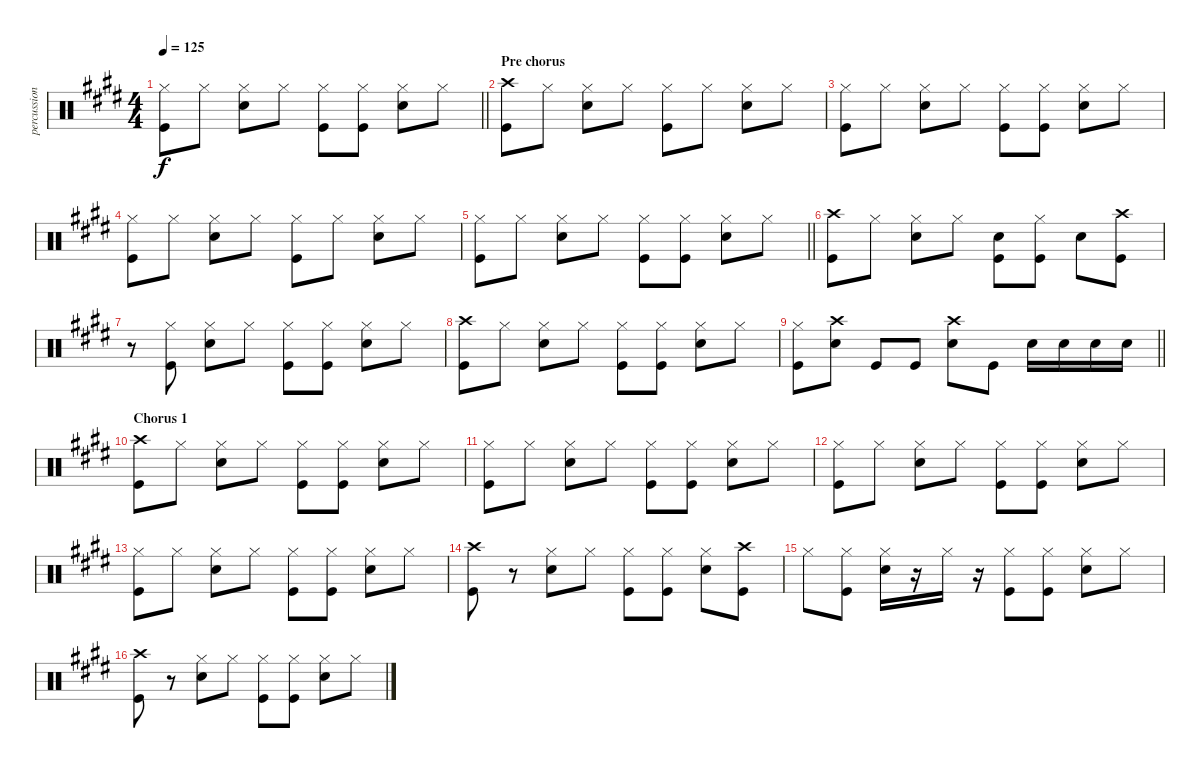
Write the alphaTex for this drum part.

\track ("percussion" "percussion") {instrument percussion}
\staff {score}
\articulation defaults
\ts (4 4)
\tempo 125
\clef neutral
\barLineRight lightlight
\ks e
("Hi-Hat (closed)" "Kick (hit)").8{dy f} "Hi-Hat (closed)".8 ("Electric Snare (hit)" "Hi-Hat (closed)").8 "Hi-Hat (closed)".8 ("Hi-Hat (closed)" "Kick (hit)").8 ("Hi-Hat (closed)" "Kick (hit)").8 ("Electric Snare (hit)" "Hi-Hat (closed)").8 "Hi-Hat (closed)".8 |
\section ("" "Pre chorus")
("Crash high (hit)" "Kick (hit)").8 "Hi-Hat (closed)".8 ("Electric Snare (hit)" "Hi-Hat (closed)").8 "Hi-Hat (closed)".8 ("Hi-Hat (closed)" "Kick (hit)").8 "Hi-Hat (closed)".8 ("Electric Snare (hit)" "Hi-Hat (closed)").8 "Hi-Hat (closed)".8 |
("Hi-Hat (closed)" "Kick (hit)").8 "Hi-Hat (closed)".8 ("Electric Snare (hit)" "Hi-Hat (closed)").8 "Hi-Hat (closed)".8 ("Hi-Hat (closed)" "Kick (hit)").8 ("Hi-Hat (closed)" "Kick (hit)").8 ("Electric Snare (hit)" "Hi-Hat (closed)").8 "Hi-Hat (closed)".8 |
("Hi-Hat (closed)" "Kick (hit)").8 "Hi-Hat (closed)".8 ("Electric Snare (hit)" "Hi-Hat (closed)").8 "Hi-Hat (closed)".8 ("Hi-Hat (closed)" "Kick (hit)").8 "Hi-Hat (closed)".8 ("Electric Snare (hit)" "Hi-Hat (closed)").8 "Hi-Hat (closed)".8 |
\barLineRight lightlight
("Hi-Hat (closed)" "Kick (hit)").8 "Hi-Hat (closed)".8 ("Electric Snare (hit)" "Hi-Hat (closed)").8 "Hi-Hat (closed)".8 ("Hi-Hat (closed)" "Kick (hit)").8 ("Hi-Hat (closed)" "Kick (hit)").8 ("Electric Snare (hit)" "Hi-Hat (closed)").8 "Hi-Hat (closed)".8 |
("Crash high (hit)" "Kick (hit)").8 "Hi-Hat (closed)".8 ("Electric Snare (hit)" "Hi-Hat (closed)").8 "Hi-Hat (closed)".8 ("Snare (hit)" "Kick (hit)").8 ("Hi-Hat (closed)" "Kick (hit)").8 "Electric Snare (hit)".8 ("Crash high (hit)" "Kick (hit)").8 |
r.8 ("Hi-Hat (closed)" "Kick (hit)").8 ("Electric Snare (hit)" "Hi-Hat (closed)").8 "Hi-Hat (closed)".8 ("Hi-Hat (closed)" "Kick (hit)").8 ("Hi-Hat (closed)" "Kick (hit)").8 ("Electric Snare (hit)" "Hi-Hat (closed)").8 "Hi-Hat (closed)".8 |
("Crash high (hit)" "Kick (hit)").8 "Hi-Hat (closed)".8 ("Electric Snare (hit)" "Hi-Hat (closed)").8 "Hi-Hat (closed)".8 ("Hi-Hat (closed)" "Kick (hit)").8 ("Hi-Hat (closed)" "Kick (hit)").8 ("Electric Snare (hit)" "Hi-Hat (closed)").8 "Hi-Hat (closed)".8 |
\barLineRight lightlight
("Hi-Hat (closed)" "Kick (hit)").8 ("Crash high (hit)" "Electric Snare (hit)").8 "Kick (hit)".8 "Kick (hit)".8 ("Crash high (hit)" "Electric Snare (hit)").8 "Kick (hit)".8 "Electric Snare (hit)".16 "Electric Snare (hit)".16 "Electric Snare (hit)".16 "Electric Snare (hit)".16 |
\section ("" "Chorus 1")
("Crash high (hit)" "Kick (hit)").8 "Hi-Hat (closed)".8 ("Electric Snare (hit)" "Hi-Hat (closed)").8 "Hi-Hat (closed)".8 ("Hi-Hat (closed)" "Kick (hit)").8 ("Hi-Hat (closed)" "Kick (hit)").8 ("Electric Snare (hit)" "Hi-Hat (closed)").8 "Hi-Hat (closed)".8 |
("Hi-Hat (closed)" "Kick (hit)").8 "Hi-Hat (closed)".8 ("Electric Snare (hit)" "Hi-Hat (closed)").8 "Hi-Hat (closed)".8 ("Hi-Hat (closed)" "Kick (hit)").8 ("Hi-Hat (closed)" "Kick (hit)").8 ("Electric Snare (hit)" "Hi-Hat (closed)").8 "Hi-Hat (closed)".8 |
("Hi-Hat (closed)" "Kick (hit)").8 "Hi-Hat (closed)".8 ("Electric Snare (hit)" "Hi-Hat (closed)").8 "Hi-Hat (closed)".8 ("Hi-Hat (closed)" "Kick (hit)").8 ("Hi-Hat (closed)" "Kick (hit)").8 ("Electric Snare (hit)" "Hi-Hat (closed)").8 "Hi-Hat (closed)".8 |
("Hi-Hat (closed)" "Kick (hit)").8 "Hi-Hat (closed)".8 ("Electric Snare (hit)" "Hi-Hat (closed)").8 "Hi-Hat (closed)".8 ("Hi-Hat (closed)" "Kick (hit)").8 ("Hi-Hat (closed)" "Kick (hit)").8 ("Electric Snare (hit)" "Hi-Hat (closed)").8 "Hi-Hat (closed)".8 |
("Crash high (hit)" "Kick (hit)").8 r.8 ("Electric Snare (hit)" "Hi-Hat (closed)").8 "Hi-Hat (closed)".8 ("Hi-Hat (closed)" "Kick (hit)").8 ("Hi-Hat (closed)" "Kick (hit)").8 ("Electric Snare (hit)" "Hi-Hat (closed)").8 ("Crash high (hit)" "Kick (hit)").8 |
"Hi-Hat (closed)".8 ("Hi-Hat (closed)" "Kick (hit)").8 ("Electric Snare (hit)" "Hi-Hat (closed)").16 r.16 "Hi-Hat (closed)".16 r.16 ("Hi-Hat (closed)" "Kick (hit)").8 ("Hi-Hat (closed)" "Kick (hit)").8 ("Electric Snare (hit)" "Hi-Hat (closed)").8 "Hi-Hat (closed)".8 |
("Crash high (hit)" "Kick (hit)").8 r.8 ("Electric Snare (hit)" "Hi-Hat (closed)").8 "Hi-Hat (closed)".8 ("Hi-Hat (closed)" "Kick (hit)").8 ("Hi-Hat (closed)" "Kick (hit)").8 ("Electric Snare (hit)" "Hi-Hat (closed)").8 "Hi-Hat (closed)".8
